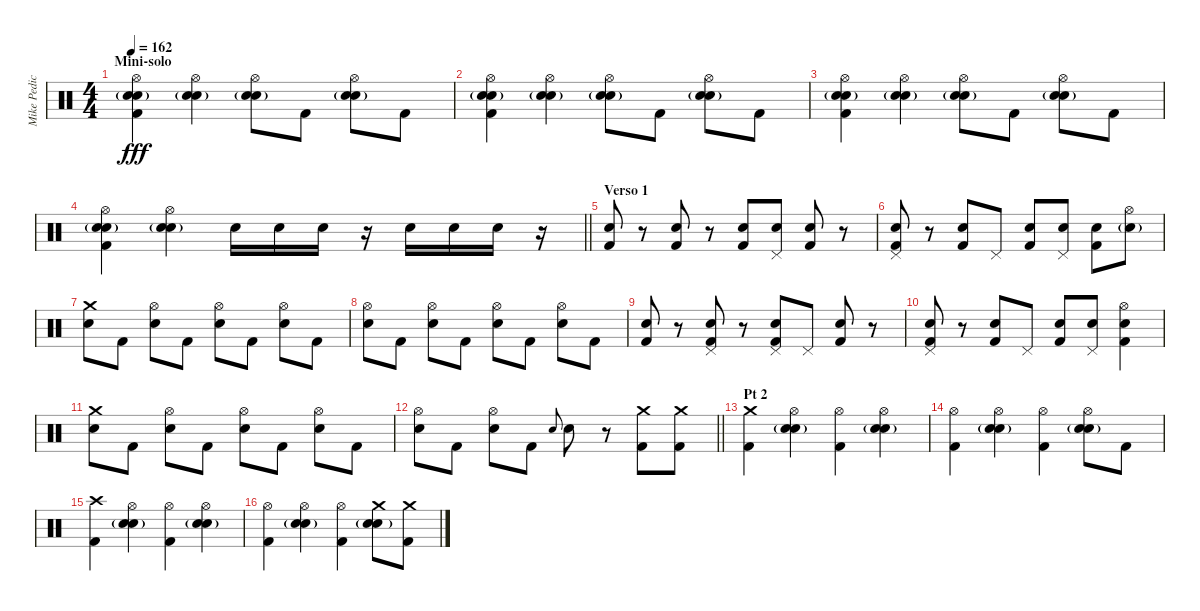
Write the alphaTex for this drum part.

\track ("Mike Pedicone [Drums]" "Mike Pedic") {instrument percussion}
\staff
\articulation defaults
\ts (4 4)
\section ("" "Mini-solo")
\tempo 162
\clef neutral
\ks c
("Hi-Hat (open)" "Hand Clap (hit)"{g} "Electric Snare (hit)" "Kick (hit) 2").4{dy fff} ("Hi-Hat (open)" "Hand Clap (hit)"{g} "Electric Snare (hit)").4 ("Hi-Hat (open)" "Hand Clap (hit)"{g} "Electric Snare (hit)").8 "Kick (hit) 2".8 ("Hi-Hat (open)" "Hand Clap (hit)"{g} "Electric Snare (hit)").8 "Kick (hit) 2".8 |
("Hi-Hat (open)" "Hand Clap (hit)"{g} "Electric Snare (hit)" "Kick (hit) 2").4 ("Hi-Hat (open)" "Hand Clap (hit)"{g} "Electric Snare (hit)").4 ("Hi-Hat (open)" "Hand Clap (hit)"{g} "Electric Snare (hit)").8 "Kick (hit) 2".8 ("Hi-Hat (open)" "Hand Clap (hit)"{g} "Electric Snare (hit)").8 "Kick (hit) 2".8 |
("Hi-Hat (open)" "Hand Clap (hit)"{g} "Electric Snare (hit)" "Kick (hit) 2").4 ("Hi-Hat (open)" "Hand Clap (hit)"{g} "Electric Snare (hit)").4 ("Hi-Hat (open)" "Hand Clap (hit)"{g} "Electric Snare (hit)").8 "Kick (hit) 2".8 ("Hi-Hat (open)" "Hand Clap (hit)"{g} "Electric Snare (hit)").8 "Kick (hit) 2".8 |
\barLineRight lightlight
("Hi-Hat (open)" "Hand Clap (hit)"{g} "Electric Snare (hit)" "Kick (hit) 2").4 ("Hi-Hat (open)" "Hand Clap (hit)"{g} "Electric Snare (hit)").4 "Electric Snare (hit)".16 "Electric Snare (hit)".16 "Electric Snare (hit)".16 r.16 "Electric Snare (hit)".16 "Electric Snare (hit)".16 "Electric Snare (hit)".16 r.16 |
\section ("" "Verso 1")
("Hand Clap (hit)" "Kick (hit) 2").8 r.8 ("Hand Clap (hit)" "Kick (hit) 2").8 r.8 ("Hand Clap (hit)" "Kick (hit) 2").8 ("Hand Clap (hit)" "Pedal Hi-Hat (hit)").8 ("Hand Clap (hit)" "Kick (hit) 2").8 r.8 |
("Hand Clap (hit)" "Pedal Hi-Hat (hit)" "Kick (hit) 2").8 r.8 ("Hand Clap (hit)" "Kick (hit) 2").8 "Pedal Hi-Hat (hit)".8 ("Hand Clap (hit)" "Kick (hit) 2").8 ("Hand Clap (hit)" "Pedal Hi-Hat (hit)").8 ("Hand Clap (hit)" "Kick (hit) 2").8 ("Hand Clap (hit)"{g} "Hi-Hat (open)").8 |
("Crash medium (hit)" "Electric Snare (hit)").8 "Kick (hit) 2".8 ("Hi-Hat (open)" "Electric Snare (hit)").8 "Kick (hit) 2".8 ("Hi-Hat (open)" "Electric Snare (hit)").8 "Kick (hit) 2".8 ("Hi-Hat (open)" "Electric Snare (hit)").8 "Kick (hit) 2".8 |
("Hi-Hat (open)" "Electric Snare (hit)").8 "Kick (hit) 2".8 ("Hi-Hat (open)" "Electric Snare (hit)").8 "Kick (hit) 2".8 ("Hi-Hat (open)" "Electric Snare (hit)").8 "Kick (hit) 2".8 ("Hi-Hat (open)" "Electric Snare (hit)").8 "Kick (hit) 2".8 |
("Hand Clap (hit)" "Kick (hit) 2").8 r.8 ("Hand Clap (hit)" "Pedal Hi-Hat (hit)" "Kick (hit) 2").8 r.8 ("Hand Clap (hit)" "Pedal Hi-Hat (hit)" "Kick (hit) 2").8 "Pedal Hi-Hat (hit)".8 ("Hand Clap (hit)" "Kick (hit) 2").8 r.8 |
("Hand Clap (hit)" "Pedal Hi-Hat (hit)" "Kick (hit) 2").8 r.8 ("Hand Clap (hit)" "Kick (hit) 2").8 "Pedal Hi-Hat (hit)".8 ("Hand Clap (hit)" "Kick (hit) 2").8 ("Hand Clap (hit)" "Pedal Hi-Hat (hit)").8 ("Hand Clap (hit)" "Hi-Hat (open)" "Kick (hit) 2").4 |
("Crash medium (hit)" "Electric Snare (hit)").8 "Kick (hit) 2".8 ("Hi-Hat (open)" "Electric Snare (hit)").8 "Kick (hit) 2".8 ("Hi-Hat (open)" "Electric Snare (hit)").8 "Kick (hit) 2".8 ("Hi-Hat (open)" "Electric Snare (hit)").8 "Kick (hit) 2".8 |
\barLineRight lightlight
("Hi-Hat (open)" "Electric Snare (hit)").8 "Kick (hit) 2".8 ("Hi-Hat (open)" "Electric Snare (hit)").8 "Kick (hit) 2".8 "Electric Snare (hit)".8{gr onbeat} "Electric Snare (hit)".8 r.8 ("Crash medium (hit)" "Kick (hit) 2").8 ("Crash medium (hit)" "Kick (hit) 2").8 |
\section ("" "Pt 2")
("Crash medium (hit)" "Kick (hit) 2").4 ("Hi-Hat (open)" "Electric Snare (hit)" "Hand Clap (hit)"{g}).4 ("Hi-Hat (open)" "Kick (hit) 2").4 ("Hi-Hat (open)" "Electric Snare (hit)" "Hand Clap (hit)"{g}).4 |
("Hi-Hat (open)" "Kick (hit) 2").4 ("Hi-Hat (open)" "Electric Snare (hit)" "Hand Clap (hit)"{g}).4 ("Hi-Hat (open)" "Kick (hit) 2").4 ("Hi-Hat (open)" "Electric Snare (hit)" "Hand Clap (hit)"{g}).8 "Kick (hit) 2".8 |
("Crash high (hit)" "Kick (hit) 2").4 ("Hi-Hat (open)" "Electric Snare (hit)" "Hand Clap (hit)"{g}).4 ("Hi-Hat (open)" "Kick (hit) 2").4 ("Hi-Hat (open)" "Electric Snare (hit)" "Hand Clap (hit)"{g}).4 |
("Hi-Hat (open)" "Kick (hit) 2").4 ("Hi-Hat (open)" "Electric Snare (hit)" "Hand Clap (hit)"{g}).4 ("Hi-Hat (open)" "Kick (hit) 2").4 ("Crash medium (hit)" "Electric Snare (hit)" "Hand Clap (hit)"{g}).8 ("Crash medium (hit)" "Kick (hit) 2").8
